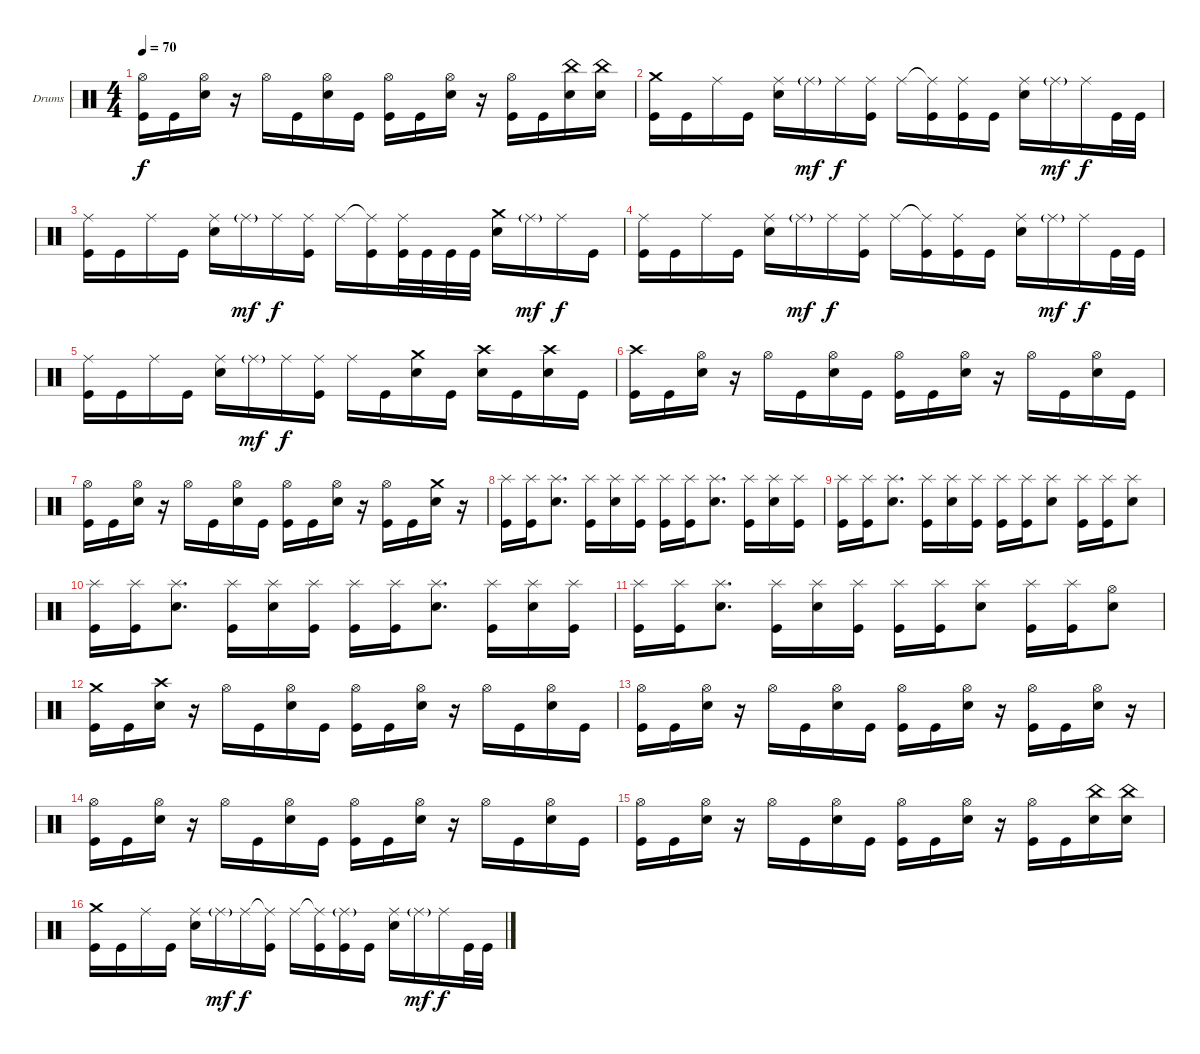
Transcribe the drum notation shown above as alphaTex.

\bracketExtendMode groupsimilarinstruments
\firstSystemTrackNameOrientation horizontal
\otherSystemsTrackNameOrientation horizontal
\track ("Drumkit" "Drums") {instrument percussion}
\staff {score}
\articulation defaults
\ts (4 4)
\tempo 70
\clef neutral
\ks c
("Hi-Hat (open)" "Kick (hit)").16{dy f} "Kick (hit)".16 ("Hi-Hat (open)" "Snare (hit) 2").16 r.16 "Hi-Hat (open)".16 "Kick (hit)".16 ("Hi-Hat (open)" "Snare (hit) 2").16 "Kick (hit)".16 ("Hi-Hat (open)" "Kick (hit)").16 "Kick (hit)".16 ("Hi-Hat (open)" "Snare (hit) 2").16 r.16 ("Hi-Hat (open)" "Kick (hit)").16 "Kick (hit)".16 ("China (hit)" "Snare (hit) 2").16 ("China (hit)" "Snare (hit) 2").16 |
("Crash medium (hit)" "Kick (hit)").16 "Kick (hit)".16 "Ride (middle)".16 "Kick (hit)".16 ("Ride (middle)" "Snare (hit) 2").16 "Ride (middle)"{g}.16{dy mf} "Ride (middle)".16{dy f} ("Ride (middle)" "Kick (hit)").16 "Ride (middle)".16 ("Ride (middle)"{t} "Kick (hit)").16 ("Ride (middle)" "Kick (hit)").16 "Kick (hit)".16 ("Ride (middle)" "Snare (hit) 2").16 "Ride (middle)"{g}.16{dy mf} "Ride (middle)".16{dy f} "Kick (hit)".32 "Kick (hit)".32 |
("Ride (middle)" "Kick (hit)").16 "Kick (hit)".16 "Ride (middle)".16 "Kick (hit)".16 ("Ride (middle)" "Snare (hit) 2").16 "Ride (middle)"{g}.16{dy mf} "Ride (middle)".16{dy f} ("Ride (middle)" "Kick (hit)").16 "Ride (middle)".16 ("Ride (middle)"{t} "Kick (hit)").16 ("Ride (middle)" "Kick (hit)").32 "Kick (hit)".32 "Kick (hit)".32 "Kick (hit)".32 ("Crash medium (hit)" "Snare (hit) 2").16 "Ride (middle)"{g}.16{dy mf} "Ride (middle)".16{dy f} "Kick (hit)".16 |
("Ride (middle)" "Kick (hit)").16 "Kick (hit)".16 "Ride (middle)".16 "Kick (hit)".16 ("Ride (middle)" "Snare (hit) 2").16 "Ride (middle)"{g}.16{dy mf} "Ride (middle)".16{dy f} ("Ride (middle)" "Kick (hit)").16 "Ride (middle)".16 ("Ride (middle)"{t} "Kick (hit)").16 ("Ride (middle)" "Kick (hit)").16 "Kick (hit)".16 ("Ride (middle)" "Snare (hit) 2").16 "Ride (middle)"{g}.16{dy mf} "Ride (middle)".16{dy f} "Kick (hit)".32 "Kick (hit)".32 |
("Ride (middle)" "Kick (hit)").16 "Kick (hit)".16 "Ride (middle)".16 "Kick (hit)".16 ("Ride (middle)" "Snare (hit) 2").16 "Ride (middle)"{g}.16{dy mf} "Ride (middle)".16{dy f} ("Ride (middle)" "Kick (hit)").16 "Ride (middle)".16 "Kick (hit)".16 ("Crash medium (hit)" "Snare (hit) 2").16 "Kick (hit)".16 ("Crash high (hit)" "Snare (hit) 2").16 "Kick (hit)".16 ("Crash high (hit)" "Snare (hit) 2").16 "Kick (hit)".16 |
("Crash high (hit)" "Kick (hit)").16 "Kick (hit)".16 ("Hi-Hat (open)" "Snare (hit) 2").16 r.16 "Hi-Hat (open)".16 "Kick (hit)".16 ("Hi-Hat (open)" "Snare (hit) 2").16 "Kick (hit)".16 ("Hi-Hat (open)" "Kick (hit)").16 "Kick (hit)".16 ("Hi-Hat (open)" "Snare (hit) 2").16 r.16 "Hi-Hat (open)".16 "Kick (hit)".16 ("Hi-Hat (open)" "Snare (hit) 2").16 "Kick (hit)".16 |
("Hi-Hat (open)" "Kick (hit)").16 "Kick (hit)".16 ("Hi-Hat (open)" "Snare (hit) 2").16 r.16 "Hi-Hat (open)".16 "Kick (hit)".16 ("Hi-Hat (open)" "Snare (hit) 2").16 "Kick (hit)".16 ("Hi-Hat (open)" "Kick (hit)").16 "Kick (hit)".16 ("Hi-Hat (open)" "Snare (hit) 2").16 r.16 ("Hi-Hat (open)" "Kick (hit)").16 "Kick (hit)".16 ("Crash medium (hit)" "Snare (hit) 2").16 r.16 |
("Splash (hit)" "Kick (hit)").16 ("Splash (hit)" "Kick (hit)").16 ("Splash (hit)" "Snare (hit) 2").8{d} ("Splash (hit)" "Kick (hit)").16 ("Splash (hit)" "Snare (hit) 2").16 ("Splash (hit)" "Kick (hit)").16 ("Splash (hit)" "Kick (hit)").16 ("Splash (hit)" "Kick (hit)").16 ("Splash (hit)" "Snare (hit) 2").8{d} ("Splash (hit)" "Kick (hit)").16 ("Splash (hit)" "Snare (hit) 2").16 ("Splash (hit)" "Kick (hit)").16 |
("Splash (hit)" "Kick (hit)").16 ("Splash (hit)" "Kick (hit)").16 ("Splash (hit)" "Snare (hit) 2").8{d} ("Splash (hit)" "Kick (hit)").16 ("Splash (hit)" "Snare (hit) 2").16 ("Splash (hit)" "Kick (hit)").16 ("Splash (hit)" "Kick (hit)").16 ("Splash (hit)" "Kick (hit)").16 ("Splash (hit)" "Snare (hit) 2").8 ("Splash (hit)" "Kick (hit)").16 ("Splash (hit)" "Kick (hit)").16 ("Splash (hit)" "Snare (hit) 2").8 |
("Splash (hit)" "Kick (hit)").16 ("Splash (hit)" "Kick (hit)").16 ("Splash (hit)" "Snare (hit) 2").8{d} ("Splash (hit)" "Kick (hit)").16 ("Splash (hit)" "Snare (hit) 2").16 ("Splash (hit)" "Kick (hit)").16 ("Splash (hit)" "Kick (hit)").16 ("Splash (hit)" "Kick (hit)").16 ("Splash (hit)" "Snare (hit) 2").8{d} ("Splash (hit)" "Kick (hit)").16 ("Splash (hit)" "Snare (hit) 2").16 ("Splash (hit)" "Kick (hit)").16 |
("Splash (hit)" "Kick (hit)").16 ("Splash (hit)" "Kick (hit)").16 ("Splash (hit)" "Snare (hit) 2").8{d} ("Splash (hit)" "Kick (hit)").16 ("Splash (hit)" "Snare (hit) 2").16 ("Splash (hit)" "Kick (hit)").16 ("Splash (hit)" "Kick (hit)").16 ("Splash (hit)" "Kick (hit)").16 ("Splash (hit)" "Snare (hit) 2").8 ("Splash (hit)" "Kick (hit)").16 ("Splash (hit)" "Kick (hit)").16 ("Hi-Hat (open)" "Snare (hit) 2").8 |
("Crash medium (hit)" "Kick (hit)").16 "Kick (hit)".16 ("Crash high (hit)" "Snare (hit) 2").16 r.16 "Hi-Hat (open)".16 "Kick (hit)".16 ("Hi-Hat (open)" "Snare (hit) 2").16 "Kick (hit)".16 ("Hi-Hat (open)" "Kick (hit)").16 "Kick (hit)".16 ("Hi-Hat (open)" "Snare (hit) 2").16 r.16 "Hi-Hat (open)".16 "Kick (hit)".16 ("Hi-Hat (open)" "Snare (hit) 2").16 "Kick (hit)".16 |
("Hi-Hat (open)" "Kick (hit)").16 "Kick (hit)".16 ("Hi-Hat (open)" "Snare (hit) 2").16 r.16 "Hi-Hat (open)".16 "Kick (hit)".16 ("Hi-Hat (open)" "Snare (hit) 2").16 "Kick (hit)".16 ("Hi-Hat (open)" "Kick (hit)").16 "Kick (hit)".16 ("Hi-Hat (open)" "Snare (hit) 2").16 r.16 ("Hi-Hat (open)" "Kick (hit)").16 "Kick (hit)".16 ("Hi-Hat (open)" "Snare (hit) 2").16 r.16 |
("Hi-Hat (open)" "Kick (hit)").16 "Kick (hit)".16 ("Hi-Hat (open)" "Snare (hit) 2").16 r.16 "Hi-Hat (open)".16 "Kick (hit)".16 ("Hi-Hat (open)" "Snare (hit) 2").16 "Kick (hit)".16 ("Hi-Hat (open)" "Kick (hit)").16 "Kick (hit)".16 ("Hi-Hat (open)" "Snare (hit) 2").16 r.16 "Hi-Hat (open)".16 "Kick (hit)".16 ("Hi-Hat (open)" "Snare (hit) 2").16 "Kick (hit)".16 |
("Hi-Hat (open)" "Kick (hit)").16 "Kick (hit)".16 ("Hi-Hat (open)" "Snare (hit) 2").16 r.16 "Hi-Hat (open)".16 "Kick (hit)".16 ("Hi-Hat (open)" "Snare (hit) 2").16 "Kick (hit)".16 ("Hi-Hat (open)" "Kick (hit)").16 "Kick (hit)".16 ("Hi-Hat (open)" "Snare (hit) 2").16 r.16 ("Hi-Hat (open)" "Kick (hit)").16 "Kick (hit)".16 ("China (hit)" "Snare (hit) 2").16 ("China (hit)" "Snare (hit) 2").16 |
("Crash medium (hit)" "Kick (hit)").16 "Kick (hit)".16 "Ride (middle)".16 "Kick (hit)".16 ("Ride (middle)" "Snare (hit) 2").16 "Ride (middle)"{g}.16{dy mf} "Ride (middle)".16{dy f} ("Ride (middle)"{t} "Kick (hit)").16 "Ride (middle)".16 ("Ride (middle)"{t} "Kick (hit)").16 ("Ride (middle)"{g} "Kick (hit)").16 "Kick (hit)".16 ("Ride (middle)" "Snare (hit) 2").16 "Ride (middle)"{g}.16{dy mf} "Ride (middle)".16{dy f} "Kick (hit)".32 "Kick (hit)".32
